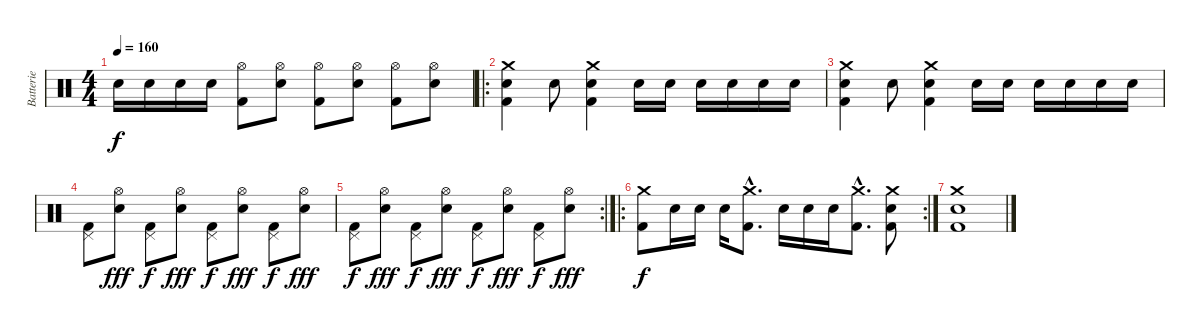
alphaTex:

\track ("Batterie" "Batterie") {instrument percussion}
\staff {score}
\articulation defaults
\ts (4 4)
\tempo 160
\clef neutral
\ks c "Electric Snare (hit)".16{dy f} "Electric Snare (hit)".16 "Electric Snare (hit)".16 "Electric Snare (hit)".16
("Kick (hit) 2" "Hi-Hat (open)").8 ("Electric Snare (hit)" "Hi-Hat (open)").8 ("Kick (hit) 2" "Hi-Hat (open)").8 ("Electric Snare (hit)" "Hi-Hat (open)").8 ("Kick (hit) 2" "Hi-Hat (open)").8 ("Electric Snare (hit)" "Hi-Hat (open)").8 |
\ro
("Kick (hit) 2" "Electric Snare (hit)" "Crash medium (hit)").4 "Electric Snare (hit)".8 ("Kick (hit) 2" "Electric Snare (hit)" "Crash medium (hit)").4 "Electric Snare (hit)".16 "Electric Snare (hit)".16 "Electric Snare (hit)".16 "Electric Snare (hit)".16 "Electric Snare (hit)".16 "Electric Snare (hit)".16 |
("Kick (hit) 2" "Electric Snare (hit)" "Crash medium (hit)").4 "Electric Snare (hit)".8 ("Kick (hit) 2" "Electric Snare (hit)" "Crash medium (hit)").4 "Electric Snare (hit)".16 "Electric Snare (hit)".16 "Electric Snare (hit)".16 "Electric Snare (hit)".16 "Electric Snare (hit)".16 "Electric Snare (hit)".16 |
("Kick (hit) 2" "Pedal Hi-Hat (hit)").8 ("Electric Snare (hit)" "Hi-Hat (open)").8{dy fff} ("Kick (hit) 2" "Pedal Hi-Hat (hit)").8{dy f} ("Electric Snare (hit)" "Hi-Hat (open)").8{dy fff} ("Kick (hit) 2" "Pedal Hi-Hat (hit)").8{dy f} ("Electric Snare (hit)" "Hi-Hat (open)").8{dy fff} ("Kick (hit) 2" "Pedal Hi-Hat (hit)").8{dy f} ("Electric Snare (hit)" "Hi-Hat (open)").8{dy fff} |
\rc 2
("Kick (hit) 2" "Pedal Hi-Hat (hit)").8{dy f} ("Electric Snare (hit)" "Hi-Hat (open)").8{dy fff} ("Kick (hit) 2" "Pedal Hi-Hat (hit)").8{dy f} ("Electric Snare (hit)" "Hi-Hat (open)").8{dy fff} ("Kick (hit) 2" "Pedal Hi-Hat (hit)").8{dy f} ("Electric Snare (hit)" "Hi-Hat (open)").8{dy fff} ("Kick (hit) 2" "Pedal Hi-Hat (hit)").8{dy f} ("Electric Snare (hit)" "Hi-Hat (open)").8{dy fff} |
\ro
\rc 2
("Kick (hit) 2" "Crash medium (hit)").8{dy f} "Electric Snare (hit)".16 "Electric Snare (hit)".16 "Electric Snare (hit)".16 ("Kick (hit) 2"{hac} "Crash medium (hit)"{hac}).8{d} "Electric Snare (hit)".16 "Electric Snare (hit)".16 "Electric Snare (hit)".16 ("Kick (hit) 2"{hac} "Crash medium (hit)"{hac}).8{d} ("Electric Snare (hit)" "Kick (hit) 2" "Crash medium (hit)").8 |
("Electric Snare (hit)" "Kick (hit) 2" "Crash medium (hit)").1
